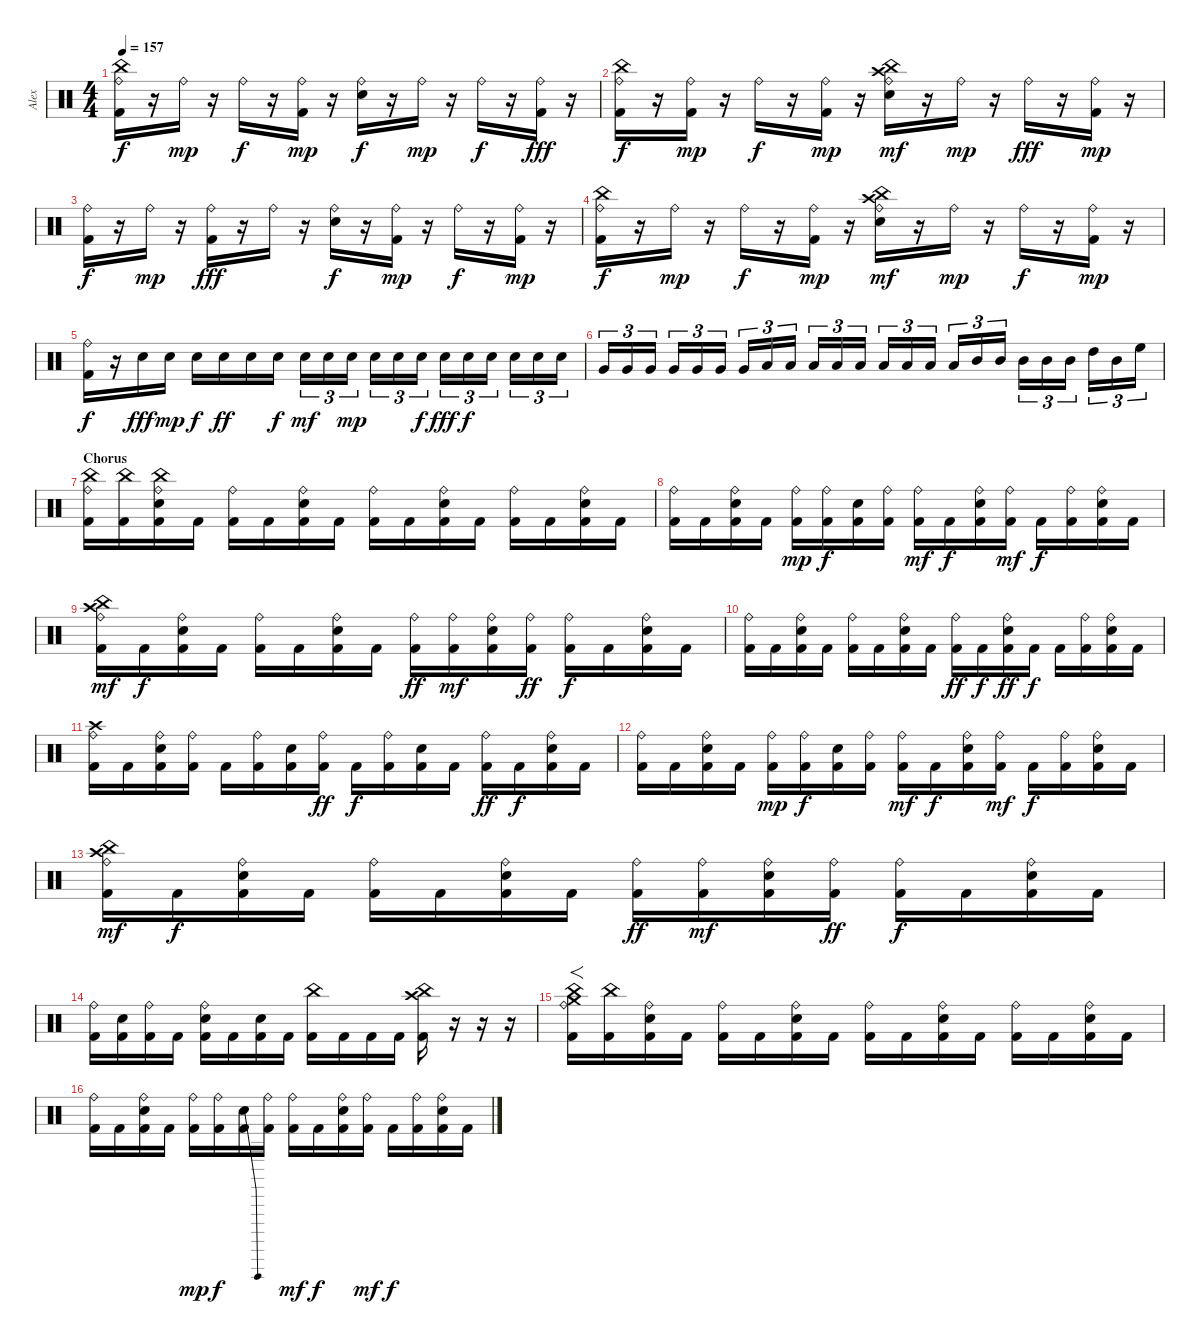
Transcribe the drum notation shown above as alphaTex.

\track ("Alex" "Alex") {instrument percussion}
\staff {score}
\articulation defaults
\ts (4 4)
\tempo 157
\clef neutral
\ks c
("China (hit)" "Ride (bell)" "Kick (hit) 2").16{dy f} r.16 "Ride (bell)".16{dy mp} r.16 "Ride (bell)".16{dy f} r.16 ("Ride (bell)" "Kick (hit) 2").16{dy mp} r.16 ("Ride (bell)" "Electric Snare (hit)").16{dy f} r.16 "Ride (bell)".16{dy mp} r.16 "Ride (bell)".16{dy f} r.16 ("Ride (bell)" "Kick (hit) 2").16{dy fff} r.16 |
("China (hit)" "Ride (bell)" "Kick (hit) 2").16{dy f} r.16 ("Ride (bell)" "Kick (hit) 2").16{dy mp} r.16 "Ride (bell)".16{dy f} r.16 ("Ride (bell)" "Kick (hit) 2").16{dy mp} r.16 ("China (hit)" "Crash high (hit)" "Ride (bell)" "Electric Snare (hit)").16{dy mf} r.16 "Ride (bell)".16{dy mp} r.16 "Ride (bell)".16{dy fff} r.16 ("Ride (bell)" "Kick (hit) 2").16{dy mp} r.16 |
("Ride (bell)" "Kick (hit) 2").16{dy f} r.16 "Ride (bell)".16{dy mp} r.16 ("Ride (bell)" "Kick (hit) 2").16{dy fff} r.16 "Ride (bell)".16 r.16 ("Ride (bell)" "Electric Snare (hit)").16{dy f} r.16 ("Ride (bell)" "Kick (hit) 2").16{dy mp} r.16 "Ride (bell)".16{dy f} r.16 ("Ride (bell)" "Kick (hit) 2").16{dy mp} r.16 |
("China (hit)" "Ride (bell)" "Kick (hit) 2").16{dy f} r.16 "Ride (bell)".16{dy mp} r.16 "Ride (bell)".16{dy f} r.16 ("Ride (bell)" "Kick (hit) 2").16{dy mp} r.16 ("China (hit)" "Crash high (hit)" "Ride (bell)" "Electric Snare (hit)").16{dy mf} r.16 "Ride (bell)".16{dy mp} r.16 "Ride (bell)".16{dy f} r.16 ("Ride (bell)" "Kick (hit) 2").16{dy mp} r.16 |
("Ride (bell)" "Kick (hit) 2").16{dy f} r.16 "Electric Snare (hit)".16{dy fff} "Electric Snare (hit)".16{dy mp} "Electric Snare (hit)".16{dy f} "Electric Snare (hit)".16{dy ff} "Electric Snare (hit)".16 "Electric Snare (hit)".16{dy f} "Electric Snare (hit)".16{tu (3 2) dy mf} "Electric Snare (hit)".16{tu (3 2)} "Electric Snare (hit)".16{tu (3 2) dy mp} "Electric Snare (hit)".16{tu (3 2)} "Electric Snare (hit)".16{tu (3 2)} "Electric Snare (hit)".16{tu (3 2) dy f} "Electric Snare (hit)".16{tu (3 2) dy fff} "Electric Snare (hit)".16{tu (3 2) dy f} "Electric Snare (hit)".16{tu (3 2)} "Electric Snare (hit)".16{tu (3 2)} "Electric Snare (hit)".16{tu (3 2)} "Electric Snare (hit)".16{tu (3 2)} |
"Very Low Tom (hit)".16{tu (3 2)} "Very Low Tom (hit)".16{tu (3 2)} "Very Low Tom (hit)".16{tu (3 2)} "Very Low Tom (hit)".16{tu (3 2)} "Very Low Tom (hit)".16{tu (3 2)} "Very Low Tom (hit)".16{tu (3 2)} "Very Low Tom (hit)".16{tu (3 2)} "Low Tom (hit)".16{tu (3 2)} "Low Tom (hit)".16{tu (3 2)} "Low Tom (hit)".16{tu (3 2)} "Low Tom (hit)".16{tu (3 2)} "Low Tom (hit)".16{tu (3 2)} "Low Tom (hit)".16{tu (3 2)} "Low Tom (hit)".16{tu (3 2)} "Low Tom (hit)".16{tu (3 2)} "Low Tom (hit)".16{tu (3 2)} "Mid Tom (hit)".16{tu (3 2)} "Mid Tom (hit)".16{tu (3 2)} "Mid Tom (hit)".16{tu (3 2)} "Mid Tom (hit)".16{tu (3 2)} "Mid Tom (hit)".16{tu (3 2)} "High Tom (hit)".16{tu (3 2)} "Mid Tom (hit)".16{tu (3 2)} "High Floor Tom (hit)".16{tu (3 2)} |
\section ("" "Chorus")
("China (hit)" "Ride (bell)" "Kick (hit) 2").16 ("China (hit)" "Kick (hit) 2").16 ("China (hit)" "Ride (bell)" "Electric Snare (hit)" "Kick (hit) 2").16 "Kick (hit) 2".16 ("Ride (bell)" "Kick (hit) 2").16 "Kick (hit) 2".16 ("Ride (bell)" "Electric Snare (hit)" "Kick (hit) 2").16 "Kick (hit) 2".16 ("Ride (bell)" "Kick (hit) 2").16 "Kick (hit) 2".16 ("Ride (bell)" "Electric Snare (hit)" "Kick (hit) 2").16 "Kick (hit) 2".16 ("Ride (bell)" "Kick (hit) 2").16 "Kick (hit) 2".16 ("Ride (bell)" "Electric Snare (hit)" "Kick (hit) 2").16 "Kick (hit) 2".16 |
("Ride (bell)" "Kick (hit) 2").16 "Kick (hit) 2".16 ("Ride (bell)" "Electric Snare (hit)" "Kick (hit) 2").16 "Kick (hit) 2".16 ("Ride (bell)" "Kick (hit) 2").16{dy mp} ("Ride (bell)" "Kick (hit) 2").16{dy f} ("Electric Snare (hit)" "Kick (hit) 2").16 ("Ride (bell)" "Kick (hit) 2").16 ("Ride (bell)" "Kick (hit) 2").16{dy mf} "Kick (hit) 2".16{dy f} ("Ride (bell)" "Electric Snare (hit)" "Kick (hit) 2").16 ("Ride (bell)" "Kick (hit) 2").16{dy mf} "Kick (hit) 2".16{dy f} ("Ride (bell)" "Kick (hit) 2").16 ("Ride (bell)" "Electric Snare (hit)" "Kick (hit) 2").16 "Kick (hit) 2".16 |
("Crash high (hit)" "China (hit)" "Ride (bell)" "Kick (hit) 2").16{dy mf} "Kick (hit) 2".16{dy f} ("Ride (bell)" "Electric Snare (hit)" "Kick (hit) 2").16 "Kick (hit) 2".16 ("Ride (bell)" "Kick (hit) 2").16 "Kick (hit) 2".16 ("Ride (bell)" "Electric Snare (hit)" "Kick (hit) 2").16 "Kick (hit) 2".16 ("Ride (bell)" "Kick (hit) 2").16{dy ff} ("Ride (bell)" "Kick (hit) 2").16{dy mf} ("Ride (bell)" "Electric Snare (hit)" "Kick (hit) 2").16 ("Ride (bell)" "Kick (hit) 2").16{dy ff} ("Ride (bell)" "Kick (hit) 2").16{dy f} "Kick (hit) 2".16 ("Ride (bell)" "Electric Snare (hit)" "Kick (hit) 2").16 "Kick (hit) 2".16 |
("Ride (bell)" "Kick (hit) 2").16 "Kick (hit) 2".16 ("Ride (bell)" "Electric Snare (hit)" "Kick (hit) 2").16 "Kick (hit) 2".16 ("Ride (bell)" "Kick (hit) 2").16 "Kick (hit) 2".16 ("Ride (bell)" "Electric Snare (hit)" "Kick (hit) 2").16 "Kick (hit) 2".16 ("Ride (bell)" "Kick (hit) 2").16{dy ff} "Kick (hit) 2".16{dy f} ("Ride (bell)" "Electric Snare (hit)" "Kick (hit) 2").16{dy ff} "Kick (hit) 2".16{dy f} "Kick (hit) 2".16 ("Ride (bell)" "Kick (hit) 2").16 ("Ride (bell)" "Electric Snare (hit)" "Kick (hit) 2").16 "Kick (hit) 2".16 |
("Crash high (hit)" "Ride (bell)" "Kick (hit) 2").16 "Kick (hit) 2".16 ("Ride (bell)" "Electric Snare (hit)" "Kick (hit) 2").16 ("Ride (bell)" "Kick (hit) 2").16 "Kick (hit) 2".16 ("Ride (bell)" "Kick (hit) 2").16 ("Electric Snare (hit)" "Kick (hit) 2").16 ("Ride (bell)" "Kick (hit) 2").16{dy ff} "Kick (hit) 2".16{dy f} ("Ride (bell)" "Kick (hit) 2").16 ("Electric Snare (hit)" "Kick (hit) 2").16 "Kick (hit) 2".16 ("Ride (bell)" "Kick (hit) 2").16{dy ff} "Kick (hit) 2".16{dy f} ("Ride (bell)" "Electric Snare (hit)" "Kick (hit) 2").16 "Kick (hit) 2".16 |
("Ride (bell)" "Kick (hit) 2").16 "Kick (hit) 2".16 ("Ride (bell)" "Electric Snare (hit)" "Kick (hit) 2").16 "Kick (hit) 2".16 ("Ride (bell)" "Kick (hit) 2").16{dy mp} ("Ride (bell)" "Kick (hit) 2").16{dy f} ("Electric Snare (hit)" "Kick (hit) 2").16 ("Ride (bell)" "Kick (hit) 2").16 ("Ride (bell)" "Kick (hit) 2").16{dy mf} "Kick (hit) 2".16{dy f} ("Ride (bell)" "Electric Snare (hit)" "Kick (hit) 2").16 ("Ride (bell)" "Kick (hit) 2").16{dy mf} "Kick (hit) 2".16{dy f} ("Ride (bell)" "Kick (hit) 2").16 ("Ride (bell)" "Electric Snare (hit)" "Kick (hit) 2").16 "Kick (hit) 2".16 |
("Crash high (hit)" "China (hit)" "Ride (bell)" "Kick (hit) 2").16{dy mf} "Kick (hit) 2".16{dy f} ("Ride (bell)" "Electric Snare (hit)" "Kick (hit) 2").16 "Kick (hit) 2".16 ("Ride (bell)" "Kick (hit) 2").16 "Kick (hit) 2".16 ("Ride (bell)" "Electric Snare (hit)" "Kick (hit) 2").16 "Kick (hit) 2".16 ("Ride (bell)" "Kick (hit) 2").16{dy ff} ("Ride (bell)" "Kick (hit) 2").16{dy mf} ("Ride (bell)" "Electric Snare (hit)" "Kick (hit) 2").16 ("Ride (bell)" "Kick (hit) 2").16{dy ff} ("Ride (bell)" "Kick (hit) 2").16{dy f} "Kick (hit) 2".16 ("Ride (bell)" "Electric Snare (hit)" "Kick (hit) 2").16 "Kick (hit) 2".16 |
("Ride (bell)" "Kick (hit) 2").16 ("Electric Snare (hit)" "Kick (hit) 2").16 ("Ride (bell)" "Kick (hit) 2").16 "Kick (hit) 2".16 ("Ride (bell)" "Electric Snare (hit)" "Kick (hit) 2").16 "Kick (hit) 2".16 ("Electric Snare (hit)" "Kick (hit) 2").16 "Kick (hit) 2".16 ("China (hit)" "Kick (hit) 2").16 "Kick (hit) 2".16 "Kick (hit) 2".16 "Kick (hit) 2".16 ("China (hit)" "Crash high (hit)" "Kick (hit) 2").16 r.16 r.16 r.16 |
("China (hit)" "Crash medium (hit)" "Ride (bell)" "Kick (hit) 2").16{f} ("China (hit)" "Kick (hit) 2").16 ("Ride (bell)" "Electric Snare (hit)" "Kick (hit) 2").16 "Kick (hit) 2".16 ("Ride (bell)" "Kick (hit) 2").16 "Kick (hit) 2".16 ("Ride (bell)" "Electric Snare (hit)" "Kick (hit) 2").16 "Kick (hit) 2".16 ("Ride (bell)" "Kick (hit) 2").16 "Kick (hit) 2".16 ("Ride (bell)" "Electric Snare (hit)" "Kick (hit) 2").16 "Kick (hit) 2".16 ("Ride (bell)" "Kick (hit) 2").16 "Kick (hit) 2".16 ("Ride (bell)" "Electric Snare (hit)" "Kick (hit) 2").16 "Kick (hit) 2".16 |
("Ride (bell)" "Kick (hit) 2").16 "Kick (hit) 2".16 ("Ride (bell)" "Electric Snare (hit)" "Kick (hit) 2").16 "Kick (hit) 2".16 ("Ride (bell)" "Kick (hit) 2").16{dy mp} ("Ride (bell)" "Kick (hit) 2").16{dy f} ("Electric Snare (hit)"{be (bend 0 0 60 12)} "Kick (hit) 2").16 ("Ride (bell)" "Kick (hit) 2").16 ("Ride (bell)" "Kick (hit) 2").16{dy mf} "Kick (hit) 2".16{dy f} ("Ride (bell)" "Electric Snare (hit)" "Kick (hit) 2").16 ("Ride (bell)" "Kick (hit) 2").16{dy mf} "Kick (hit) 2".16{dy f} ("Ride (bell)" "Kick (hit) 2").16 ("Ride (bell)" "Electric Snare (hit)" "Kick (hit) 2").16 "Kick (hit) 2".16
